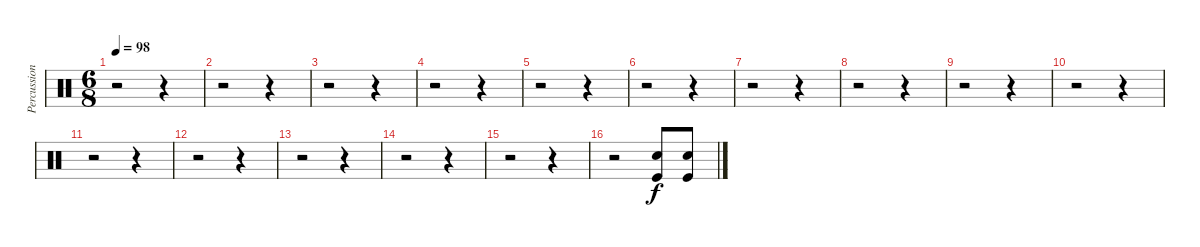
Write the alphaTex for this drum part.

\track ("Percussion" "Percussion") {instrument percussion}
\staff {score}
\articulation defaults
\ts (6 8)
\tempo 98
\clef neutral
\ks c
r.2{dy f} r.4 |
r.2 r.4 |
r.2 r.4 |
r.2 r.4 |
r.2 r.4 |
r.2 r.4 |
r.2 r.4 |
r.2 r.4 |
r.2 r.4 |
r.2 r.4 |
r.2 r.4 |
r.2 r.4 |
r.2 r.4 |
r.2 r.4 |
r.2 r.4 |
r.2 ("Snare (hit) 2" "Kick (hit)").8 ("Snare (hit) 2" "Kick (hit)").8
